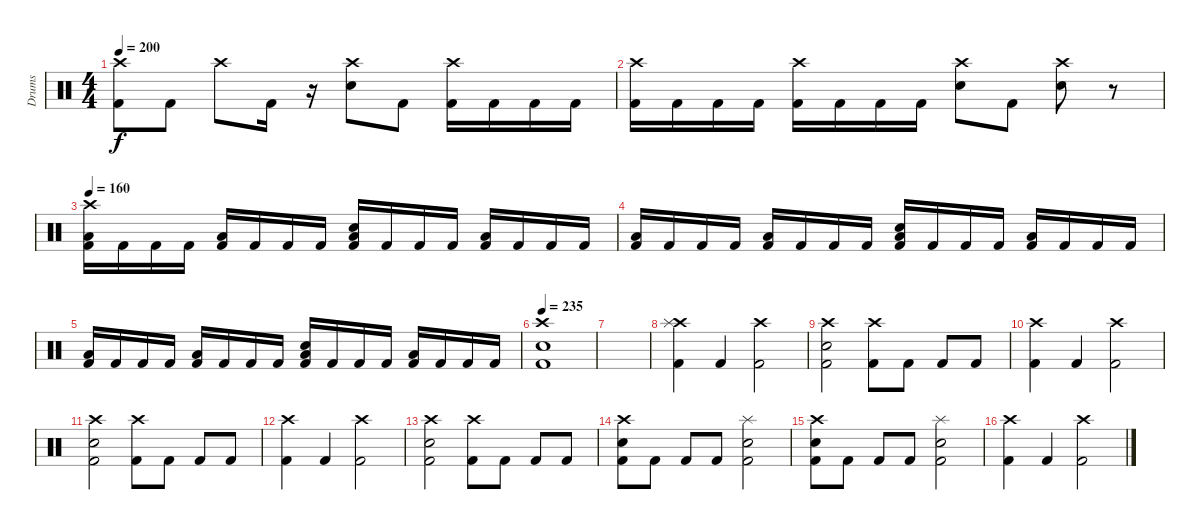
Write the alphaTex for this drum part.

\track ("Drums" "Drums") {instrument percussion}
\staff {score}
\articulation defaults
\ts (4 4)
\tempo 200
\clef neutral
\ks c
("Crash high (hit)" "Kick (hit) 2").8{dy f} "Kick (hit) 2".8 "Crash high (hit)".8 "Kick (hit) 2".16 r.16 ("Crash high (hit)" "Snare (hit) 2").8 "Kick (hit) 2".8 ("Crash high (hit)" "Kick (hit) 2").16 "Kick (hit) 2".16 "Kick (hit) 2".16 "Kick (hit) 2".16 |
("Crash high (hit)" "Kick (hit) 2").16 "Kick (hit) 2".16 "Kick (hit) 2".16 "Kick (hit) 2".16 ("Crash high (hit)" "Kick (hit) 2").16 "Kick (hit) 2".16 "Kick (hit) 2".16 "Kick (hit) 2".16 ("Crash high (hit)" "Snare (hit) 2").8 "Kick (hit) 2".8 ("Crash high (hit)" "Snare (hit) 2").8 r.8 |
\tempo 160
("Crash high (hit)" "Low Tom (hit)" "Kick (hit) 2").16 "Kick (hit) 2".16 "Kick (hit) 2".16 "Kick (hit) 2".16 ("Low Tom (hit)" "Kick (hit) 2").16 "Kick (hit) 2".16 "Kick (hit) 2".16 "Kick (hit) 2".16 ("Snare (hit) 2" "Low Tom (hit)" "Kick (hit) 2").16 "Kick (hit) 2".16 "Kick (hit) 2".16 "Kick (hit) 2".16 ("Low Tom (hit)" "Kick (hit) 2").16 "Kick (hit) 2".16 "Kick (hit) 2".16 "Kick (hit) 2".16 |
("Low Tom (hit)" "Kick (hit) 2").16 "Kick (hit) 2".16 "Kick (hit) 2".16 "Kick (hit) 2".16 ("Low Tom (hit)" "Kick (hit) 2").16 "Kick (hit) 2".16 "Kick (hit) 2".16 "Kick (hit) 2".16 ("Snare (hit) 2" "Low Tom (hit)" "Kick (hit) 2").16 "Kick (hit) 2".16 "Kick (hit) 2".16 "Kick (hit) 2".16 ("Low Tom (hit)" "Kick (hit) 2").16 "Kick (hit) 2".16 "Kick (hit) 2".16 "Kick (hit) 2".16 |
("Low Tom (hit)" "Kick (hit) 2").16 "Kick (hit) 2".16 "Kick (hit) 2".16 "Kick (hit) 2".16 ("Low Tom (hit)" "Kick (hit) 2").16 "Kick (hit) 2".16 "Kick (hit) 2".16 "Kick (hit) 2".16 ("Snare (hit) 2" "Low Tom (hit)" "Kick (hit) 2").16 "Kick (hit) 2".16 "Kick (hit) 2".16 "Kick (hit) 2".16 ("Low Tom (hit)" "Kick (hit) 2").16 "Kick (hit) 2".16 "Kick (hit) 2".16 "Kick (hit) 2".16 |
\tempo 235
("Crash high (hit)" "Snare (hit) 2" "Kick (hit) 2").1 |
|
("Crash high (hit)" "Splash (hit)" "Kick (hit) 2").4 "Kick (hit) 2".4 ("Crash high (hit)" "Kick (hit) 2").2 |
("Crash high (hit)" "Snare (hit) 2" "Kick (hit) 2").2 ("Crash high (hit)" "Kick (hit) 2").8 "Kick (hit) 2".8 "Kick (hit) 2".8 "Kick (hit) 2".8 |
("Crash high (hit)" "Kick (hit) 2").4 "Kick (hit) 2".4 ("Crash high (hit)" "Kick (hit) 2").2 |
("Crash high (hit)" "Snare (hit) 2" "Kick (hit) 2").2 ("Crash high (hit)" "Kick (hit) 2").8 "Kick (hit) 2".8 "Kick (hit) 2".8 "Kick (hit) 2".8 |
("Crash high (hit)" "Kick (hit) 2").4 "Kick (hit) 2".4 ("Crash high (hit)" "Kick (hit) 2").2 |
("Crash high (hit)" "Snare (hit) 2" "Kick (hit) 2").2 ("Crash high (hit)" "Kick (hit) 2").8 "Kick (hit) 2".8 "Kick (hit) 2".8 "Kick (hit) 2".8 |
("Crash high (hit)" "Snare (hit) 2" "Kick (hit) 2").8 "Kick (hit) 2".8 "Kick (hit) 2".8 "Kick (hit) 2".8 ("Splash (hit)" "Snare (hit) 2" "Kick (hit) 2").2 |
("Crash high (hit)" "Snare (hit) 2" "Kick (hit) 2").8 "Kick (hit) 2".8 "Kick (hit) 2".8 "Kick (hit) 2".8 ("Splash (hit)" "Snare (hit) 2" "Kick (hit) 2").2 |
("Crash high (hit)" "Kick (hit) 2").4 "Kick (hit) 2".4 ("Crash high (hit)" "Kick (hit) 2").2
